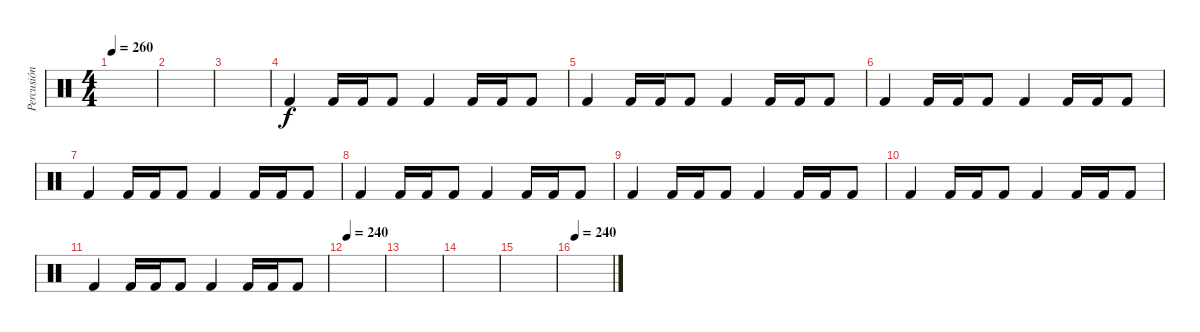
\track ("Percusión" "Percusión") {instrument percussion}
\staff {score}
\articulation defaults
\ts (4 4)
\tempo 260
\clef neutral
\ks c
|
|
|
"Kick (hit) 2".4 "Kick (hit) 2".16 "Kick (hit) 2".16 "Kick (hit) 2".8 "Kick (hit) 2".4 "Kick (hit) 2".16 "Kick (hit) 2".16 "Kick (hit) 2".8 |
"Kick (hit) 2".4 "Kick (hit) 2".16 "Kick (hit) 2".16 "Kick (hit) 2".8 "Kick (hit) 2".4 "Kick (hit) 2".16 "Kick (hit) 2".16 "Kick (hit) 2".8 |
"Kick (hit) 2".4 "Kick (hit) 2".16 "Kick (hit) 2".16 "Kick (hit) 2".8 "Kick (hit) 2".4 "Kick (hit) 2".16 "Kick (hit) 2".16 "Kick (hit) 2".8 |
"Kick (hit) 2".4 "Kick (hit) 2".16 "Kick (hit) 2".16 "Kick (hit) 2".8 "Kick (hit) 2".4 "Kick (hit) 2".16 "Kick (hit) 2".16 "Kick (hit) 2".8 |
"Kick (hit) 2".4 "Kick (hit) 2".16 "Kick (hit) 2".16 "Kick (hit) 2".8 "Kick (hit) 2".4 "Kick (hit) 2".16 "Kick (hit) 2".16 "Kick (hit) 2".8 |
"Kick (hit) 2".4 "Kick (hit) 2".16 "Kick (hit) 2".16 "Kick (hit) 2".8 "Kick (hit) 2".4 "Kick (hit) 2".16 "Kick (hit) 2".16 "Kick (hit) 2".8 |
"Kick (hit) 2".4 "Kick (hit) 2".16 "Kick (hit) 2".16 "Kick (hit) 2".8 "Kick (hit) 2".4 "Kick (hit) 2".16 "Kick (hit) 2".16 "Kick (hit) 2".8 |
"Kick (hit) 2".4 "Kick (hit) 2".16 "Kick (hit) 2".16 "Kick (hit) 2".8 "Kick (hit) 2".4 "Kick (hit) 2".16 "Kick (hit) 2".16 "Kick (hit) 2".8 |
\tempo 240
|
|
|
|
\tempo 240
